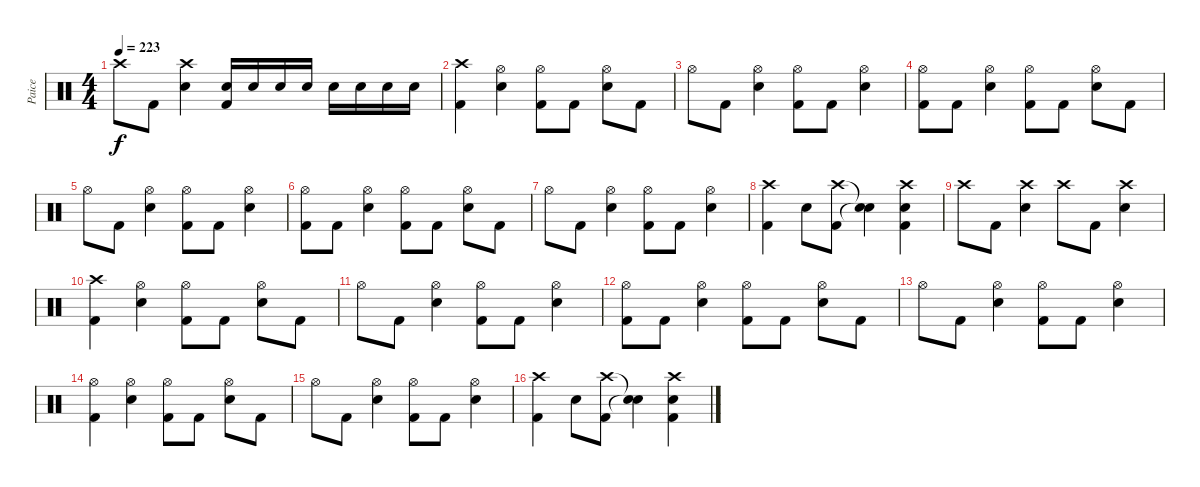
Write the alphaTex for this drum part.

\track ("Paice" "Paice") {instrument percussion}
\staff {score}
\articulation defaults
\ts (4 4)
\tempo 223
\clef neutral
\ks c "Crash high (hit)".8{dy f} "Kick (hit) 2".8
("Crash high (hit)" "Electric Snare (hit)").4 ("Electric Snare (hit)" "Kick (hit) 2").16 "Electric Snare (hit)".16 "Electric Snare (hit)".16 "Electric Snare (hit)".16 "Electric Snare (hit)".16 "Electric Snare (hit)".16 "Electric Snare (hit)".16 "Electric Snare (hit)".16 |
("Crash high (hit)" "Kick (hit) 2").4 ("Hi-Hat (open)" "Electric Snare (hit)").4 ("Hi-Hat (open)" "Kick (hit) 2").8 "Kick (hit) 2".8 ("Hi-Hat (open)" "Electric Snare (hit)").8 "Kick (hit) 2".8 |
"Hi-Hat (open)".8 "Kick (hit) 2".8 ("Hi-Hat (open)" "Electric Snare (hit)").4 ("Hi-Hat (open)" "Kick (hit) 2").8 "Kick (hit) 2".8 ("Hi-Hat (open)" "Electric Snare (hit)").4 |
("Hi-Hat (open)" "Kick (hit) 2").8 "Kick (hit) 2".8 ("Hi-Hat (open)" "Electric Snare (hit)").4 ("Hi-Hat (open)" "Kick (hit) 2").8 "Kick (hit) 2".8 ("Hi-Hat (open)" "Electric Snare (hit)").8 "Kick (hit) 2".8 |
"Hi-Hat (open)".8 "Kick (hit) 2".8 ("Hi-Hat (open)" "Electric Snare (hit)").4 ("Hi-Hat (open)" "Kick (hit) 2").8 "Kick (hit) 2".8 ("Hi-Hat (open)" "Electric Snare (hit)").4 |
("Hi-Hat (open)" "Kick (hit) 2").8 "Kick (hit) 2".8 ("Hi-Hat (open)" "Electric Snare (hit)").4 ("Hi-Hat (open)" "Kick (hit) 2").8 "Kick (hit) 2".8 ("Hi-Hat (open)" "Electric Snare (hit)").8 "Kick (hit) 2".8 |
"Hi-Hat (open)".8 "Kick (hit) 2".8 ("Hi-Hat (open)" "Electric Snare (hit)").4 ("Hi-Hat (open)" "Kick (hit) 2").8 "Kick (hit) 2".8 ("Hi-Hat (open)" "Electric Snare (hit)").4 |
("Crash high (hit)" "Kick (hit) 2").4 "Electric Snare (hit)".8 ("Crash high (hit)" "Kick (hit) 2").8 ("Snare (hit)"{t} "Snare (hit)"{t}).4 ("Crash high (hit)" "Electric Snare (hit)" "Kick (hit) 2").4 |
"Crash high (hit)".8 "Kick (hit) 2".8 ("Crash high (hit)" "Electric Snare (hit)").4 "Crash high (hit)".8 "Kick (hit) 2".8 ("Crash high (hit)" "Electric Snare (hit)").4 |
("Crash high (hit)" "Kick (hit) 2").4 ("Hi-Hat (open)" "Electric Snare (hit)").4 ("Hi-Hat (open)" "Kick (hit) 2").8 "Kick (hit) 2".8 ("Hi-Hat (open)" "Electric Snare (hit)").8 "Kick (hit) 2".8 |
"Hi-Hat (open)".8 "Kick (hit) 2".8 ("Hi-Hat (open)" "Electric Snare (hit)").4 ("Hi-Hat (open)" "Kick (hit) 2").8 "Kick (hit) 2".8 ("Hi-Hat (open)" "Electric Snare (hit)").4 |
("Hi-Hat (open)" "Kick (hit) 2").8 "Kick (hit) 2".8 ("Hi-Hat (open)" "Electric Snare (hit)").4 ("Hi-Hat (open)" "Kick (hit) 2").8 "Kick (hit) 2".8 ("Hi-Hat (open)" "Electric Snare (hit)").8 "Kick (hit) 2".8 |
"Hi-Hat (open)".8 "Kick (hit) 2".8 ("Hi-Hat (open)" "Electric Snare (hit)").4 ("Hi-Hat (open)" "Kick (hit) 2").8 "Kick (hit) 2".8 ("Hi-Hat (open)" "Electric Snare (hit)").4 |
("Hi-Hat (open)" "Kick (hit) 2").4 ("Hi-Hat (open)" "Electric Snare (hit)").4 ("Hi-Hat (open)" "Kick (hit) 2").8 "Kick (hit) 2".8 ("Hi-Hat (open)" "Electric Snare (hit)").8 "Kick (hit) 2".8 |
"Hi-Hat (open)".8 "Kick (hit) 2".8 ("Hi-Hat (open)" "Electric Snare (hit)").4 ("Hi-Hat (open)" "Kick (hit) 2").8 "Kick (hit) 2".8 ("Hi-Hat (open)" "Electric Snare (hit)").4 |
("Crash high (hit)" "Kick (hit) 2").4 "Electric Snare (hit)".8 ("Crash high (hit)" "Kick (hit) 2").8 ("Snare (hit)"{t} "Snare (hit)"{t}).4 ("Crash high (hit)" "Electric Snare (hit)" "Kick (hit) 2").4
